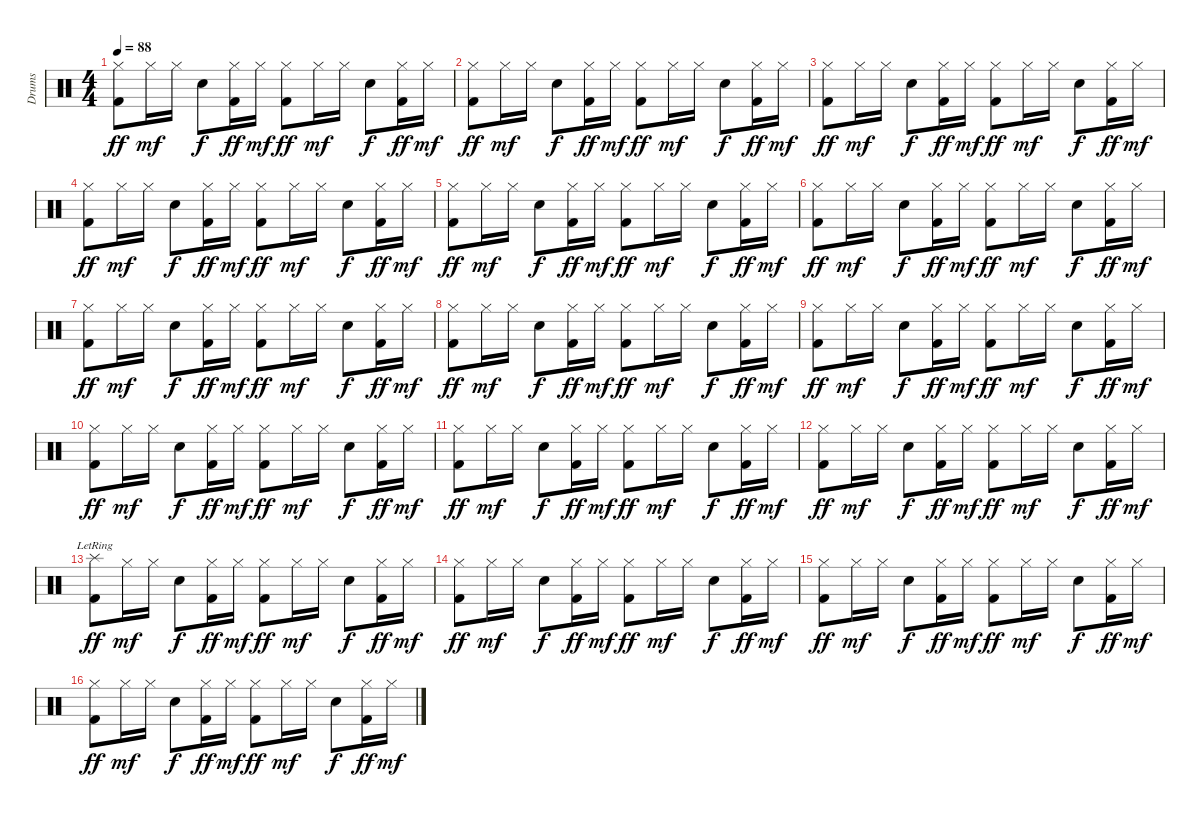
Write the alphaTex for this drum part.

\track ("Drums" "Drums") {instrument percussion}
\staff {score}
\articulation defaults
\ts (4 4)
\tempo 88
\clef neutral
\ks c
("Hi-Hat (closed)" "Kick (hit) 2").8{dy ff} "Hi-Hat (closed)".16{dy mf} "Hi-Hat (closed)".16 "Snare (hit) 2".8{dy f} ("Hi-Hat (closed)" "Kick (hit) 2").16{dy ff} "Hi-Hat (closed)".16{dy mf} ("Hi-Hat (closed)" "Kick (hit) 2").8{dy ff} "Hi-Hat (closed)".16{dy mf} "Hi-Hat (closed)".16 "Snare (hit) 2".8{dy f} ("Hi-Hat (closed)" "Kick (hit) 2").16{dy ff} "Hi-Hat (closed)".16{dy mf} |
("Hi-Hat (closed)" "Kick (hit) 2").8{dy ff} "Hi-Hat (closed)".16{dy mf} "Hi-Hat (closed)".16 "Snare (hit) 2".8{dy f} ("Hi-Hat (closed)" "Kick (hit) 2").16{dy ff} "Hi-Hat (closed)".16{dy mf} ("Hi-Hat (closed)" "Kick (hit) 2").8{dy ff} "Hi-Hat (closed)".16{dy mf} "Hi-Hat (closed)".16 "Snare (hit) 2".8{dy f} ("Hi-Hat (closed)" "Kick (hit) 2").16{dy ff} "Hi-Hat (closed)".16{dy mf} |
("Hi-Hat (closed)" "Kick (hit) 2").8{dy ff} "Hi-Hat (closed)".16{dy mf} "Hi-Hat (closed)".16 "Snare (hit) 2".8{dy f} ("Hi-Hat (closed)" "Kick (hit) 2").16{dy ff} "Hi-Hat (closed)".16{dy mf} ("Hi-Hat (closed)" "Kick (hit) 2").8{dy ff} "Hi-Hat (closed)".16{dy mf} "Hi-Hat (closed)".16 "Snare (hit) 2".8{dy f} ("Hi-Hat (closed)" "Kick (hit) 2").16{dy ff} "Hi-Hat (closed)".16{dy mf} |
("Hi-Hat (closed)" "Kick (hit) 2").8{dy ff} "Hi-Hat (closed)".16{dy mf} "Hi-Hat (closed)".16 "Snare (hit) 2".8{dy f} ("Hi-Hat (closed)" "Kick (hit) 2").16{dy ff} "Hi-Hat (closed)".16{dy mf} ("Hi-Hat (closed)" "Kick (hit) 2").8{dy ff} "Hi-Hat (closed)".16{dy mf} "Hi-Hat (closed)".16 "Snare (hit) 2".8{dy f} ("Hi-Hat (closed)" "Kick (hit) 2").16{dy ff} "Hi-Hat (closed)".16{dy mf} |
("Hi-Hat (closed)" "Kick (hit) 2").8{dy ff} "Hi-Hat (closed)".16{dy mf} "Hi-Hat (closed)".16 "Snare (hit) 2".8{dy f} ("Hi-Hat (closed)" "Kick (hit) 2").16{dy ff} "Hi-Hat (closed)".16{dy mf} ("Hi-Hat (closed)" "Kick (hit) 2").8{dy ff} "Hi-Hat (closed)".16{dy mf} "Hi-Hat (closed)".16 "Snare (hit) 2".8{dy f} ("Hi-Hat (closed)" "Kick (hit) 2").16{dy ff} "Hi-Hat (closed)".16{dy mf} |
("Hi-Hat (closed)" "Kick (hit) 2").8{dy ff} "Hi-Hat (closed)".16{dy mf} "Hi-Hat (closed)".16 "Snare (hit) 2".8{dy f} ("Hi-Hat (closed)" "Kick (hit) 2").16{dy ff} "Hi-Hat (closed)".16{dy mf} ("Hi-Hat (closed)" "Kick (hit) 2").8{dy ff} "Hi-Hat (closed)".16{dy mf} "Hi-Hat (closed)".16 "Snare (hit) 2".8{dy f} ("Hi-Hat (closed)" "Kick (hit) 2").16{dy ff} "Hi-Hat (closed)".16{dy mf} |
("Hi-Hat (closed)" "Kick (hit) 2").8{dy ff} "Hi-Hat (closed)".16{dy mf} "Hi-Hat (closed)".16 "Snare (hit) 2".8{dy f} ("Hi-Hat (closed)" "Kick (hit) 2").16{dy ff} "Hi-Hat (closed)".16{dy mf} ("Hi-Hat (closed)" "Kick (hit) 2").8{dy ff} "Hi-Hat (closed)".16{dy mf} "Hi-Hat (closed)".16 "Snare (hit) 2".8{dy f} ("Hi-Hat (closed)" "Kick (hit) 2").16{dy ff} "Hi-Hat (closed)".16{dy mf} |
("Hi-Hat (closed)" "Kick (hit) 2").8{dy ff} "Hi-Hat (closed)".16{dy mf} "Hi-Hat (closed)".16 "Snare (hit) 2".8{dy f} ("Hi-Hat (closed)" "Kick (hit) 2").16{dy ff} "Hi-Hat (closed)".16{dy mf} ("Hi-Hat (closed)" "Kick (hit) 2").8{dy ff} "Hi-Hat (closed)".16{dy mf} "Hi-Hat (closed)".16 "Snare (hit) 2".8{dy f} ("Hi-Hat (closed)" "Kick (hit) 2").16{dy ff} "Hi-Hat (closed)".16{dy mf} |
("Hi-Hat (closed)" "Kick (hit) 2").8{dy ff} "Hi-Hat (closed)".16{dy mf} "Hi-Hat (closed)".16 "Snare (hit) 2".8{dy f} ("Hi-Hat (closed)" "Kick (hit) 2").16{dy ff} "Hi-Hat (closed)".16{dy mf} ("Hi-Hat (closed)" "Kick (hit) 2").8{dy ff} "Hi-Hat (closed)".16{dy mf} "Hi-Hat (closed)".16 "Snare (hit) 2".8{dy f} ("Hi-Hat (closed)" "Kick (hit) 2").16{dy ff} "Hi-Hat (closed)".16{dy mf} |
("Hi-Hat (closed)" "Kick (hit) 2").8{dy ff} "Hi-Hat (closed)".16{dy mf} "Hi-Hat (closed)".16 "Snare (hit) 2".8{dy f} ("Hi-Hat (closed)" "Kick (hit) 2").16{dy ff} "Hi-Hat (closed)".16{dy mf} ("Hi-Hat (closed)" "Kick (hit) 2").8{dy ff} "Hi-Hat (closed)".16{dy mf} "Hi-Hat (closed)".16 "Snare (hit) 2".8{dy f} ("Hi-Hat (closed)" "Kick (hit) 2").16{dy ff} "Hi-Hat (closed)".16{dy mf} |
("Hi-Hat (closed)" "Kick (hit) 2").8{dy ff} "Hi-Hat (closed)".16{dy mf} "Hi-Hat (closed)".16 "Snare (hit) 2".8{dy f} ("Hi-Hat (closed)" "Kick (hit) 2").16{dy ff} "Hi-Hat (closed)".16{dy mf} ("Hi-Hat (closed)" "Kick (hit) 2").8{dy ff} "Hi-Hat (closed)".16{dy mf} "Hi-Hat (closed)".16 "Snare (hit) 2".8{dy f} ("Hi-Hat (closed)" "Kick (hit) 2").16{dy ff} "Hi-Hat (closed)".16{dy mf} |
("Hi-Hat (closed)" "Kick (hit) 2").8{dy ff} "Hi-Hat (closed)".16{dy mf} "Hi-Hat (closed)".16 "Snare (hit) 2".8{dy f} ("Hi-Hat (closed)" "Kick (hit) 2").16{dy ff} "Hi-Hat (closed)".16{dy mf} ("Hi-Hat (closed)" "Kick (hit) 2").8{dy ff} "Hi-Hat (closed)".16{dy mf} "Hi-Hat (closed)".16 "Snare (hit) 2".8{dy f} ("Hi-Hat (closed)" "Kick (hit) 2").16{dy ff} "Hi-Hat (closed)".16{dy mf} |
("Splash (hit)"{lr} "Kick (hit) 2").8{dy ff} "Hi-Hat (closed)".16{dy mf} "Hi-Hat (closed)".16 "Snare (hit) 2".8{dy f} ("Hi-Hat (closed)" "Kick (hit) 2").16{dy ff} "Hi-Hat (closed)".16{dy mf} ("Hi-Hat (closed)" "Kick (hit) 2").8{dy ff} "Hi-Hat (closed)".16{dy mf} "Hi-Hat (closed)".16 "Snare (hit) 2".8{dy f} ("Hi-Hat (closed)" "Kick (hit) 2").16{dy ff} "Hi-Hat (closed)".16{dy mf} |
("Hi-Hat (closed)" "Kick (hit) 2").8{dy ff} "Hi-Hat (closed)".16{dy mf} "Hi-Hat (closed)".16 "Snare (hit) 2".8{dy f} ("Hi-Hat (closed)" "Kick (hit) 2").16{dy ff} "Hi-Hat (closed)".16{dy mf} ("Hi-Hat (closed)" "Kick (hit) 2").8{dy ff} "Hi-Hat (closed)".16{dy mf} "Hi-Hat (closed)".16 "Snare (hit) 2".8{dy f} ("Hi-Hat (closed)" "Kick (hit) 2").16{dy ff} "Hi-Hat (closed)".16{dy mf} |
("Hi-Hat (closed)" "Kick (hit) 2").8{dy ff} "Hi-Hat (closed)".16{dy mf} "Hi-Hat (closed)".16 "Snare (hit) 2".8{dy f} ("Hi-Hat (closed)" "Kick (hit) 2").16{dy ff} "Hi-Hat (closed)".16{dy mf} ("Hi-Hat (closed)" "Kick (hit) 2").8{dy ff} "Hi-Hat (closed)".16{dy mf} "Hi-Hat (closed)".16 "Snare (hit) 2".8{dy f} ("Hi-Hat (closed)" "Kick (hit) 2").16{dy ff} "Hi-Hat (closed)".16{dy mf} |
("Hi-Hat (closed)" "Kick (hit) 2").8{dy ff} "Hi-Hat (closed)".16{dy mf} "Hi-Hat (closed)".16 "Snare (hit) 2".8{dy f} ("Hi-Hat (closed)" "Kick (hit) 2").16{dy ff} "Hi-Hat (closed)".16{dy mf} ("Hi-Hat (closed)" "Kick (hit) 2").8{dy ff} "Hi-Hat (closed)".16{dy mf} "Hi-Hat (closed)".16 "Snare (hit) 2".8{dy f} ("Hi-Hat (closed)" "Kick (hit) 2").16{dy ff} "Hi-Hat (closed)".16{dy mf}
